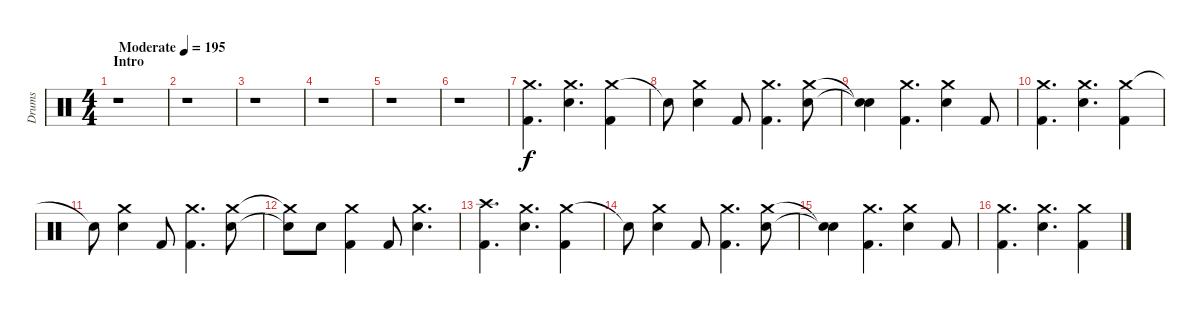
\track ("Drums" "Drums") {instrument percussion}
\staff {score}
\articulation defaults
\ts (4 4)
\section ("" "Intro")
\tempo (195 "Moderate")
\clef neutral
\ks c
r.1{dy f} |
r.1 |
r.1 |
r.1 |
r.1 |
r.1 |
("Crash medium (hit)" "Kick (hit) 2").4{d} ("Crash medium (hit)" "Electric Snare (hit)").4{d} ("Crash medium (hit)" "Kick (hit) 2").4 |
"Snare (hit)"{t}.8 ("Crash medium (hit)" "Electric Snare (hit)").4 "Kick (hit) 2".8 ("Crash medium (hit)" "Kick (hit) 2").4{d} ("Crash medium (hit)" "Electric Snare (hit)").8 |
("Snare (hit)"{t} "Snare (hit)"{t}).4 ("Crash medium (hit)" "Kick (hit) 2").4{d} ("Crash medium (hit)" "Electric Snare (hit)").4 "Kick (hit) 2".8 |
("Crash medium (hit)" "Kick (hit) 2").4{d} ("Crash medium (hit)" "Electric Snare (hit)").4{d} ("Crash medium (hit)" "Kick (hit) 2").4 |
"Snare (hit)"{t}.8 ("Crash medium (hit)" "Electric Snare (hit)").4 "Kick (hit) 2".8 ("Crash medium (hit)" "Kick (hit) 2").4{d} ("Crash medium (hit)" "Electric Snare (hit)").8 |
("Crash medium (hit)"{t} "Electric Snare (hit)"{t}).8 "Electric Snare (hit)".8 ("Crash medium (hit)" "Kick (hit) 2").4 "Kick (hit) 2".8 ("Crash medium (hit)" "Electric Snare (hit)").4{d} |
("Crash high (hit)" "Kick (hit) 2").4{d} ("Crash medium (hit)" "Electric Snare (hit)").4{d} ("Crash medium (hit)" "Kick (hit) 2").4 |
"Snare (hit)"{t}.8 ("Crash medium (hit)" "Electric Snare (hit)").4 "Kick (hit) 2".8 ("Crash medium (hit)" "Kick (hit) 2").4{d} ("Crash medium (hit)" "Electric Snare (hit)").8 |
("Snare (hit)"{t} "Snare (hit)"{t}).4 ("Crash medium (hit)" "Kick (hit) 2").4{d} ("Crash medium (hit)" "Electric Snare (hit)").4 "Kick (hit) 2".8 |
("Crash medium (hit)" "Kick (hit) 2").4{d} ("Crash medium (hit)" "Electric Snare (hit)").4{d} ("Crash medium (hit)" "Kick (hit) 2").4
